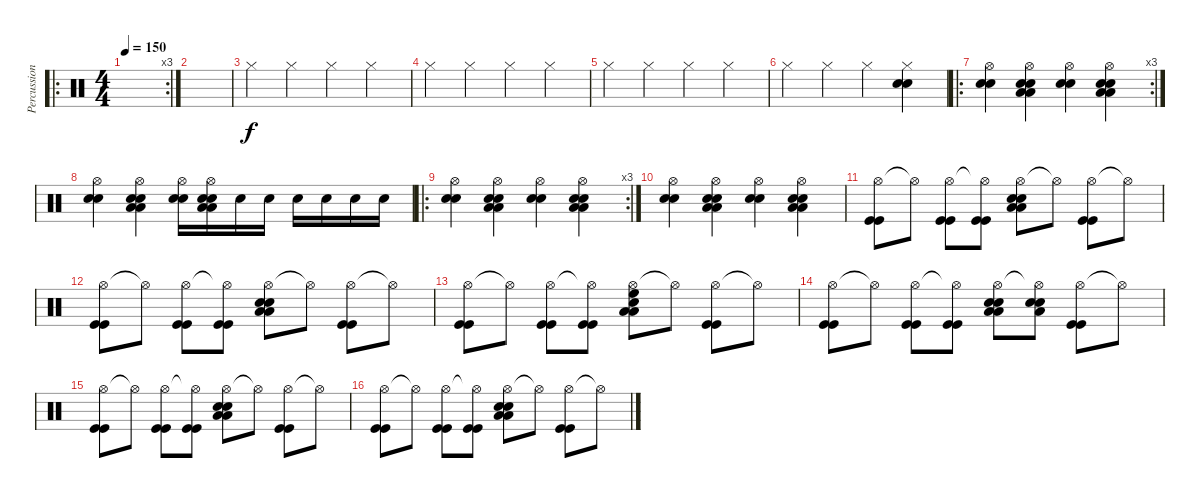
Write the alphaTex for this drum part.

\track ("Percussion" "Percussion") {instrument percussion}
\staff {score}
\articulation defaults
\ro
\rc 3
\ts (4 4)
\tempo 150
\clef neutral
\ks c
|
|
"Hi-Hat (closed)".4 "Hi-Hat (closed)".4 "Hi-Hat (closed)".4 "Hi-Hat (closed)".4 |
"Hi-Hat (closed)".4 "Hi-Hat (closed)".4 "Hi-Hat (closed)".4 "Hi-Hat (closed)".4 |
"Hi-Hat (closed)".4 "Hi-Hat (closed)".4 "Hi-Hat (closed)".4 "Hi-Hat (closed)".4 |
"Hi-Hat (closed)".4 "Hi-Hat (closed)".4 "Hi-Hat (closed)".4 ("Hi-Hat (closed)" "Electric Snare (hit)" "Electric Snare (hit)").4 |
\ro
\rc 3
("Hi-Hat (open)" "Electric Snare (hit)" "Electric Snare (hit)").4 ("Hi-Hat (open)" "Electric Snare (hit)" "Electric Snare (hit)" "Low Tom (hit)" "Low Tom (hit)").4 ("Hi-Hat (open)" "Electric Snare (hit)" "Electric Snare (hit)").4 ("Hi-Hat (open)" "Electric Snare (hit)" "Electric Snare (hit)" "Low Tom (hit)" "Low Tom (hit)").4 |
("Hi-Hat (open)" "Electric Snare (hit)" "Electric Snare (hit)").4 ("Hi-Hat (open)" "Electric Snare (hit)" "Electric Snare (hit)" "Low Tom (hit)" "Low Tom (hit)").4 ("Hi-Hat (open)" "Electric Snare (hit)" "Electric Snare (hit)").16 ("Hi-Hat (open)" "Electric Snare (hit)" "Electric Snare (hit)" "Low Tom (hit)" "Low Tom (hit)").16 "Electric Snare (hit)".16 "Electric Snare (hit)".16 "Electric Snare (hit)".16 "Electric Snare (hit)".16 "Electric Snare (hit)".16 "Electric Snare (hit)".16 |
\ro
\rc 3
("Hi-Hat (open)" "Electric Snare (hit)" "Electric Snare (hit)").4 ("Hi-Hat (open)" "Electric Snare (hit)" "Electric Snare (hit)" "Low Tom (hit)" "Low Tom (hit)").4 ("Hi-Hat (open)" "Electric Snare (hit)" "Electric Snare (hit)").4 ("Hi-Hat (open)" "Electric Snare (hit)" "Electric Snare (hit)" "Low Tom (hit)" "Low Tom (hit)").4 |
("Hi-Hat (open)" "Electric Snare (hit)" "Electric Snare (hit)").4 ("Hi-Hat (open)" "Electric Snare (hit)" "Electric Snare (hit)" "Low Tom (hit)" "Low Tom (hit)").4 ("Hi-Hat (open)" "Electric Snare (hit)" "Electric Snare (hit)").4 ("Hi-Hat (open)" "Electric Snare (hit)" "Electric Snare (hit)" "Low Tom (hit)" "Low Tom (hit)").4 |
("Hi-Hat (open)" "Kick (hit)" "Kick (hit)").8 "Hi-Hat (open)"{t}.8 ("Hi-Hat (open)" "Kick (hit)" "Kick (hit)").8 ("Hi-Hat (open)"{t} "Kick (hit)" "Kick (hit)").8 ("Hi-Hat (open)" "Electric Snare (hit)" "Electric Snare (hit)" "Low Tom (hit)" "Low Tom (hit)").8 "Hi-Hat (open)"{t}.8 ("Hi-Hat (open)" "Kick (hit)" "Kick (hit)").8 "Hi-Hat (open)"{t}.8 |
("Hi-Hat (open)" "Kick (hit)" "Kick (hit)").8 "Hi-Hat (open)"{t}.8 ("Hi-Hat (open)" "Kick (hit)" "Kick (hit)").8 ("Hi-Hat (open)"{t} "Kick (hit)" "Kick (hit)").8 ("Hi-Hat (open)" "Electric Snare (hit)" "Electric Snare (hit)" "Low Tom (hit)" "Low Tom (hit)").8 "Hi-Hat (open)"{t}.8 ("Hi-Hat (open)" "Kick (hit)" "Kick (hit)").8 "Hi-Hat (open)"{t}.8 |
("Hi-Hat (open)" "Kick (hit)" "Kick (hit)").8 "Hi-Hat (open)"{t}.8 ("Hi-Hat (open)" "Kick (hit)" "Kick (hit)").8 ("Hi-Hat (open)"{t} "Kick (hit)" "Kick (hit)").8 ("Hi-Hat (open)" "Electric Snare (hit)" "High Floor Tom (hit)" "Low Tom (hit)" "Low Tom (hit)").8 "Hi-Hat (open)"{t}.8 ("Hi-Hat (open)" "Kick (hit)" "Kick (hit)").8 "Hi-Hat (open)"{t}.8 |
("Hi-Hat (open)" "Kick (hit)" "Kick (hit)").8 "Hi-Hat (open)"{t}.8 ("Hi-Hat (open)" "Kick (hit)" "Kick (hit)").8 ("Hi-Hat (open)"{t} "Kick (hit)" "Kick (hit)").8 ("Hi-Hat (open)" "Electric Snare (hit)" "Electric Snare (hit)" "Low Tom (hit)" "Low Tom (hit)").8 ("Hi-Hat (open)"{t} "Electric Snare (hit)" "Electric Snare (hit)" "Low Tom (hit)").8 ("Hi-Hat (open)" "Kick (hit)" "Kick (hit)").8 "Hi-Hat (open)"{t}.8 |
("Hi-Hat (open)" "Kick (hit)" "Kick (hit)").8 "Hi-Hat (open)"{t}.8 ("Hi-Hat (open)" "Kick (hit)" "Kick (hit)").8 ("Hi-Hat (open)"{t} "Kick (hit)" "Kick (hit)").8 ("Hi-Hat (open)" "Electric Snare (hit)" "Electric Snare (hit)" "Low Tom (hit)" "Low Tom (hit)").8 "Hi-Hat (open)"{t}.8 ("Hi-Hat (open)" "Kick (hit)" "Kick (hit)").8 "Hi-Hat (open)"{t}.8 |
("Hi-Hat (open)" "Kick (hit)" "Kick (hit)").8 "Hi-Hat (open)"{t}.8 ("Hi-Hat (open)" "Kick (hit)" "Kick (hit)").8 ("Hi-Hat (open)"{t} "Kick (hit)" "Kick (hit)").8 ("Hi-Hat (open)" "Electric Snare (hit)" "Electric Snare (hit)" "Low Tom (hit)" "Low Tom (hit)").8 "Hi-Hat (open)"{t}.8 ("Hi-Hat (open)" "Kick (hit)" "Kick (hit)").8 "Hi-Hat (open)"{t}.8
